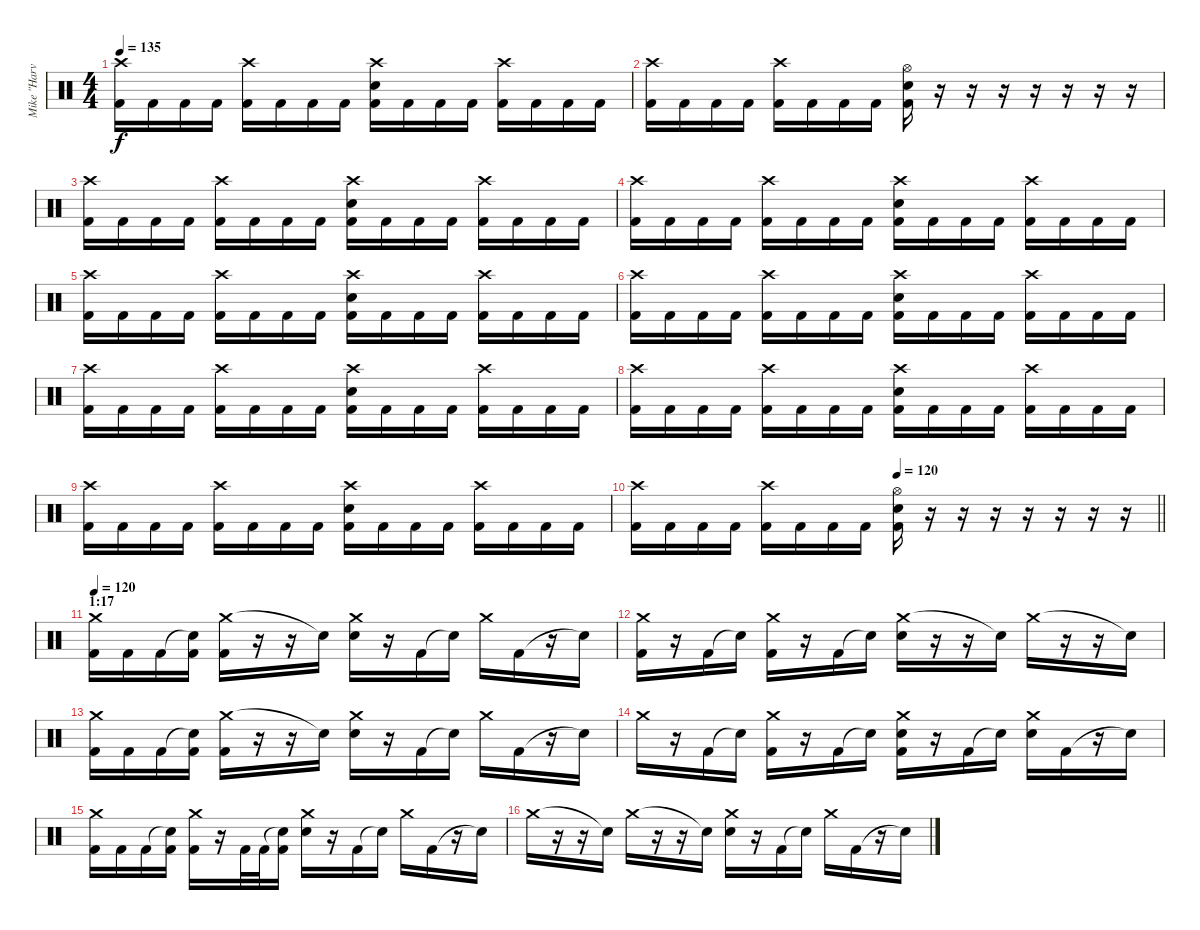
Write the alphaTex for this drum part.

\track ("Mike \"Harvey\" Kaabe" "Mike \"Harv") {instrument percussion}
\staff {score}
\articulation defaults
\ts (4 4)
\tempo 135
\clef neutral
\ks c
("Crash high (hit)" "Kick (hit) 2").16{dy f} "Kick (hit) 2".16 "Kick (hit) 2".16 "Kick (hit) 2".16 ("Crash high (hit)" "Kick (hit) 2").16 "Kick (hit) 2".16 "Kick (hit) 2".16 "Kick (hit) 2".16 ("Crash high (hit)" "Electric Snare (hit)" "Kick (hit) 2").16 "Kick (hit) 2".16 "Kick (hit) 2".16 "Kick (hit) 2".16 ("Crash high (hit)" "Kick (hit) 2").16 "Kick (hit) 2".16 "Kick (hit) 2".16 "Kick (hit) 2".16 |
("Crash high (hit)" "Kick (hit) 2").16 "Kick (hit) 2".16 "Kick (hit) 2".16 "Kick (hit) 2".16 ("Crash high (hit)" "Kick (hit) 2").16 "Kick (hit) 2".16 "Kick (hit) 2".16 "Kick (hit) 2".16 ("Hi-Hat (open)" "Electric Snare (hit)" "Kick (hit) 2").16 r.16 r.16 r.16 r.16 r.16 r.16 r.16 |
("Crash high (hit)" "Kick (hit) 2").16 "Kick (hit) 2".16 "Kick (hit) 2".16 "Kick (hit) 2".16 ("Crash high (hit)" "Kick (hit) 2").16 "Kick (hit) 2".16 "Kick (hit) 2".16 "Kick (hit) 2".16 ("Crash high (hit)" "Electric Snare (hit)" "Kick (hit) 2").16 "Kick (hit) 2".16 "Kick (hit) 2".16 "Kick (hit) 2".16 ("Crash high (hit)" "Kick (hit) 2").16 "Kick (hit) 2".16 "Kick (hit) 2".16 "Kick (hit) 2".16 |
("Crash high (hit)" "Kick (hit) 2").16 "Kick (hit) 2".16 "Kick (hit) 2".16 "Kick (hit) 2".16 ("Crash high (hit)" "Kick (hit) 2").16 "Kick (hit) 2".16 "Kick (hit) 2".16 "Kick (hit) 2".16 ("Crash high (hit)" "Electric Snare (hit)" "Kick (hit) 2").16 "Kick (hit) 2".16 "Kick (hit) 2".16 "Kick (hit) 2".16 ("Crash high (hit)" "Kick (hit) 2").16 "Kick (hit) 2".16 "Kick (hit) 2".16 "Kick (hit) 2".16 |
("Crash high (hit)" "Kick (hit) 2").16 "Kick (hit) 2".16 "Kick (hit) 2".16 "Kick (hit) 2".16 ("Crash high (hit)" "Kick (hit) 2").16 "Kick (hit) 2".16 "Kick (hit) 2".16 "Kick (hit) 2".16 ("Crash high (hit)" "Electric Snare (hit)" "Kick (hit) 2").16 "Kick (hit) 2".16 "Kick (hit) 2".16 "Kick (hit) 2".16 ("Crash high (hit)" "Kick (hit) 2").16 "Kick (hit) 2".16 "Kick (hit) 2".16 "Kick (hit) 2".16 |
("Crash high (hit)" "Kick (hit) 2").16 "Kick (hit) 2".16 "Kick (hit) 2".16 "Kick (hit) 2".16 ("Crash high (hit)" "Kick (hit) 2").16 "Kick (hit) 2".16 "Kick (hit) 2".16 "Kick (hit) 2".16 ("Crash high (hit)" "Electric Snare (hit)" "Kick (hit) 2").16 "Kick (hit) 2".16 "Kick (hit) 2".16 "Kick (hit) 2".16 ("Crash high (hit)" "Kick (hit) 2").16 "Kick (hit) 2".16 "Kick (hit) 2".16 "Kick (hit) 2".16 |
("Crash high (hit)" "Kick (hit) 2").16 "Kick (hit) 2".16 "Kick (hit) 2".16 "Kick (hit) 2".16 ("Crash high (hit)" "Kick (hit) 2").16 "Kick (hit) 2".16 "Kick (hit) 2".16 "Kick (hit) 2".16 ("Crash high (hit)" "Electric Snare (hit)" "Kick (hit) 2").16 "Kick (hit) 2".16 "Kick (hit) 2".16 "Kick (hit) 2".16 ("Crash high (hit)" "Kick (hit) 2").16 "Kick (hit) 2".16 "Kick (hit) 2".16 "Kick (hit) 2".16 |
("Crash high (hit)" "Kick (hit) 2").16 "Kick (hit) 2".16 "Kick (hit) 2".16 "Kick (hit) 2".16 ("Crash high (hit)" "Kick (hit) 2").16 "Kick (hit) 2".16 "Kick (hit) 2".16 "Kick (hit) 2".16 ("Crash high (hit)" "Electric Snare (hit)" "Kick (hit) 2").16 "Kick (hit) 2".16 "Kick (hit) 2".16 "Kick (hit) 2".16 ("Crash high (hit)" "Kick (hit) 2").16 "Kick (hit) 2".16 "Kick (hit) 2".16 "Kick (hit) 2".16 |
("Crash high (hit)" "Kick (hit) 2").16 "Kick (hit) 2".16 "Kick (hit) 2".16 "Kick (hit) 2".16 ("Crash high (hit)" "Kick (hit) 2").16 "Kick (hit) 2".16 "Kick (hit) 2".16 "Kick (hit) 2".16 ("Crash high (hit)" "Electric Snare (hit)" "Kick (hit) 2").16 "Kick (hit) 2".16 "Kick (hit) 2".16 "Kick (hit) 2".16 ("Crash high (hit)" "Kick (hit) 2").16 "Kick (hit) 2".16 "Kick (hit) 2".16 "Kick (hit) 2".16 |
\tempo (120 0.5)
\barLineRight lightlight
("Crash high (hit)" "Kick (hit) 2").16 "Kick (hit) 2".16 "Kick (hit) 2".16 "Kick (hit) 2".16 ("Crash high (hit)" "Kick (hit) 2").16 "Kick (hit) 2".16 "Kick (hit) 2".16 "Kick (hit) 2".16 ("Hi-Hat (open)" "Electric Snare (hit)" "Kick (hit) 2").16 r.16 r.16 r.16 r.16 r.16 r.16 r.16 |
\section ("" "1:17")
\tempo 120
("Crash medium (hit)" "Kick (hit) 2").16 "Kick (hit) 2".16 "Kick (hit) 2".16 ("Snare (hit)"{t} "Kick (hit) 2").16 ("Crash medium (hit)" "Kick (hit) 2").16 r.16 r.16 "Snare (hit)"{t}.16 ("Crash medium (hit)" "Electric Snare (hit)").16 r.16 "Kick (hit) 2".16 "Snare (hit)"{t}.16 "Crash medium (hit)".16 "Kick (hit) 2".16 r.16 "Snare (hit)"{t}.16 |
("Crash medium (hit)" "Kick (hit) 2").16 r.16 "Kick (hit) 2".16 "Snare (hit)"{t}.16 ("Crash medium (hit)" "Kick (hit) 2").16 r.16 "Kick (hit) 2".16 "Snare (hit)"{t}.16 ("Crash medium (hit)" "Electric Snare (hit)").16 r.16 r.16 "Snare (hit)"{t}.16 "Crash medium (hit)".16 r.16 r.16 "Snare (hit)"{t}.16 |
("Crash medium (hit)" "Kick (hit) 2").16 "Kick (hit) 2".16 "Kick (hit) 2".16 ("Snare (hit)"{t} "Kick (hit) 2").16 ("Crash medium (hit)" "Kick (hit) 2").16 r.16 r.16 "Snare (hit)"{t}.16 ("Crash medium (hit)" "Electric Snare (hit)").16 r.16 "Kick (hit) 2".16 "Snare (hit)"{t}.16 "Crash medium (hit)".16 "Kick (hit) 2".16 r.16 "Snare (hit)"{t}.16 |
"Crash medium (hit)".16 r.16 "Kick (hit) 2".16 "Snare (hit)"{t}.16 ("Crash medium (hit)" "Kick (hit) 2").16 r.16 "Kick (hit) 2".16 "Snare (hit)"{t}.16 ("Crash medium (hit)" "Electric Snare (hit)" "Kick (hit) 2").16 r.16 "Kick (hit) 2".16 "Snare (hit)"{t}.16 ("Crash medium (hit)" "Electric Snare (hit)").16 "Kick (hit) 2".16 r.16 "Snare (hit)"{t}.16 |
("Crash medium (hit)" "Kick (hit) 2").16 "Kick (hit) 2".16 "Kick (hit) 2".16 ("Snare (hit)"{t} "Kick (hit) 2").16 ("Crash medium (hit)" "Kick (hit) 2").16 r.16 "Kick (hit) 2".32 "Kick (hit) 2".32 ("Snare (hit)"{t} "Kick (hit) 2").16 ("Crash medium (hit)" "Electric Snare (hit)").16 r.16 "Kick (hit) 2".16 "Snare (hit)"{t}.16 "Crash medium (hit)".16 "Kick (hit) 2".16 r.16 "Snare (hit)"{t}.16 |
"Crash medium (hit)".16 r.16 r.16 "Snare (hit)"{t}.16 "Crash medium (hit)".16 r.16 r.16 "Snare (hit)"{t}.16 ("Crash medium (hit)" "Electric Snare (hit)").16 r.16 "Kick (hit) 2".16 "Snare (hit)"{t}.16 "Crash medium (hit)".16 "Kick (hit) 2".16 r.16 "Snare (hit)"{t}.16
